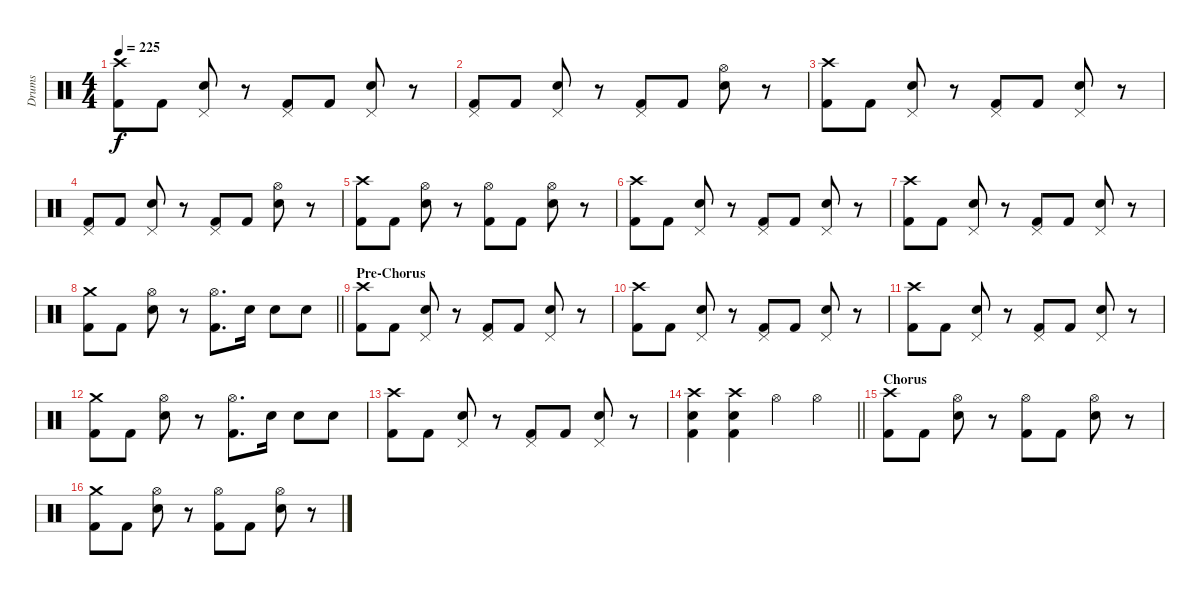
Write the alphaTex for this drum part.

\track ("Drums" "Drums") {instrument percussion}
\staff {score}
\articulation defaults
\ts (4 4)
\tempo 225
\clef neutral
\ks c
("Crash high (hit)" "Kick (hit) 2").8{dy f} "Kick (hit) 2".8 ("Pedal Hi-Hat (hit)" "Electric Snare (hit)").8 r.8 ("Pedal Hi-Hat (hit)" "Kick (hit) 2").8 "Kick (hit) 2".8 ("Pedal Hi-Hat (hit)" "Electric Snare (hit)").8 r.8 |
("Pedal Hi-Hat (hit)" "Kick (hit) 2").8 "Kick (hit) 2".8 ("Pedal Hi-Hat (hit)" "Electric Snare (hit)").8 r.8 ("Pedal Hi-Hat (hit)" "Kick (hit) 2").8 "Kick (hit) 2".8 ("Hi-Hat (open)" "Electric Snare (hit)").8 r.8 |
("Crash high (hit)" "Kick (hit) 2").8 "Kick (hit) 2".8 ("Pedal Hi-Hat (hit)" "Electric Snare (hit)").8 r.8 ("Pedal Hi-Hat (hit)" "Kick (hit) 2").8 "Kick (hit) 2".8 ("Pedal Hi-Hat (hit)" "Electric Snare (hit)").8 r.8 |
("Pedal Hi-Hat (hit)" "Kick (hit) 2").8 "Kick (hit) 2".8 ("Pedal Hi-Hat (hit)" "Electric Snare (hit)").8 r.8 ("Pedal Hi-Hat (hit)" "Kick (hit) 2").8 "Kick (hit) 2".8 ("Hi-Hat (open)" "Electric Snare (hit)").8 r.8 |
("Crash high (hit)" "Kick (hit) 2").8 "Kick (hit) 2".8 ("Hi-Hat (open)" "Electric Snare (hit)").8 r.8 ("Hi-Hat (open)" "Kick (hit) 2").8 "Kick (hit) 2".8 ("Hi-Hat (open)" "Electric Snare (hit)").8 r.8 |
("Crash high (hit)" "Kick (hit) 2").8 "Kick (hit) 2".8 ("Pedal Hi-Hat (hit)" "Electric Snare (hit)").8 r.8 ("Pedal Hi-Hat (hit)" "Kick (hit) 2").8 "Kick (hit) 2".8 ("Pedal Hi-Hat (hit)" "Electric Snare (hit)").8 r.8 |
("Crash high (hit)" "Kick (hit) 2").8 "Kick (hit) 2".8 ("Pedal Hi-Hat (hit)" "Electric Snare (hit)").8 r.8 ("Pedal Hi-Hat (hit)" "Kick (hit) 2").8 "Kick (hit) 2".8 ("Pedal Hi-Hat (hit)" "Electric Snare (hit)").8 r.8 |
\barLineRight lightlight
("Crash medium (hit)" "Kick (hit) 2").8 "Kick (hit) 2".8 ("Hi-Hat (open)" "Electric Snare (hit)").8 r.8 ("Hi-Hat (open)" "Kick (hit) 2").8{d} "Electric Snare (hit)".16 "Electric Snare (hit)".8 "Electric Snare (hit)".8 |
\section ("" "Pre-Chorus")
("Crash high (hit)" "Kick (hit) 2").8 "Kick (hit) 2".8 ("Pedal Hi-Hat (hit)" "Electric Snare (hit)").8 r.8 ("Pedal Hi-Hat (hit)" "Kick (hit) 2").8 "Kick (hit) 2".8 ("Pedal Hi-Hat (hit)" "Electric Snare (hit)").8 r.8 |
("Crash high (hit)" "Kick (hit) 2").8 "Kick (hit) 2".8 ("Pedal Hi-Hat (hit)" "Electric Snare (hit)").8 r.8 ("Pedal Hi-Hat (hit)" "Kick (hit) 2").8 "Kick (hit) 2".8 ("Pedal Hi-Hat (hit)" "Electric Snare (hit)").8 r.8 |
("Crash high (hit)" "Kick (hit) 2").8 "Kick (hit) 2".8 ("Pedal Hi-Hat (hit)" "Electric Snare (hit)").8 r.8 ("Pedal Hi-Hat (hit)" "Kick (hit) 2").8 "Kick (hit) 2".8 ("Pedal Hi-Hat (hit)" "Electric Snare (hit)").8 r.8 |
("Crash medium (hit)" "Kick (hit) 2").8 "Kick (hit) 2".8 ("Hi-Hat (open)" "Electric Snare (hit)").8 r.8 ("Hi-Hat (open)" "Kick (hit) 2").8{d} "Electric Snare (hit)".16 "Electric Snare (hit)".8 "Electric Snare (hit)".8 |
("Crash high (hit)" "Kick (hit) 2").8 "Kick (hit) 2".8 ("Pedal Hi-Hat (hit)" "Electric Snare (hit)").8 r.8 ("Pedal Hi-Hat (hit)" "Kick (hit) 2").8 "Kick (hit) 2".8 ("Pedal Hi-Hat (hit)" "Electric Snare (hit)").8 r.8 |
\barLineRight lightlight
("Crash high (hit)" "Electric Snare (hit)" "Kick (hit) 2").4 ("Crash high (hit)" "Electric Snare (hit)" "Kick (hit) 2").4 "Hi-Hat (open)".4 "Hi-Hat (open)".4 |
\section ("" "Chorus")
("Crash high (hit)" "Kick (hit) 2").8 "Kick (hit) 2".8 ("Hi-Hat (open)" "Electric Snare (hit)").8 r.8 ("Hi-Hat (open)" "Kick (hit) 2").8 "Kick (hit) 2".8 ("Hi-Hat (open)" "Electric Snare (hit)").8 r.8 |
("Crash medium (hit)" "Kick (hit) 2").8 "Kick (hit) 2".8 ("Hi-Hat (open)" "Electric Snare (hit)").8 r.8 ("Hi-Hat (open)" "Kick (hit) 2").8 "Kick (hit) 2".8 ("Hi-Hat (open)" "Electric Snare (hit)").8 r.8
